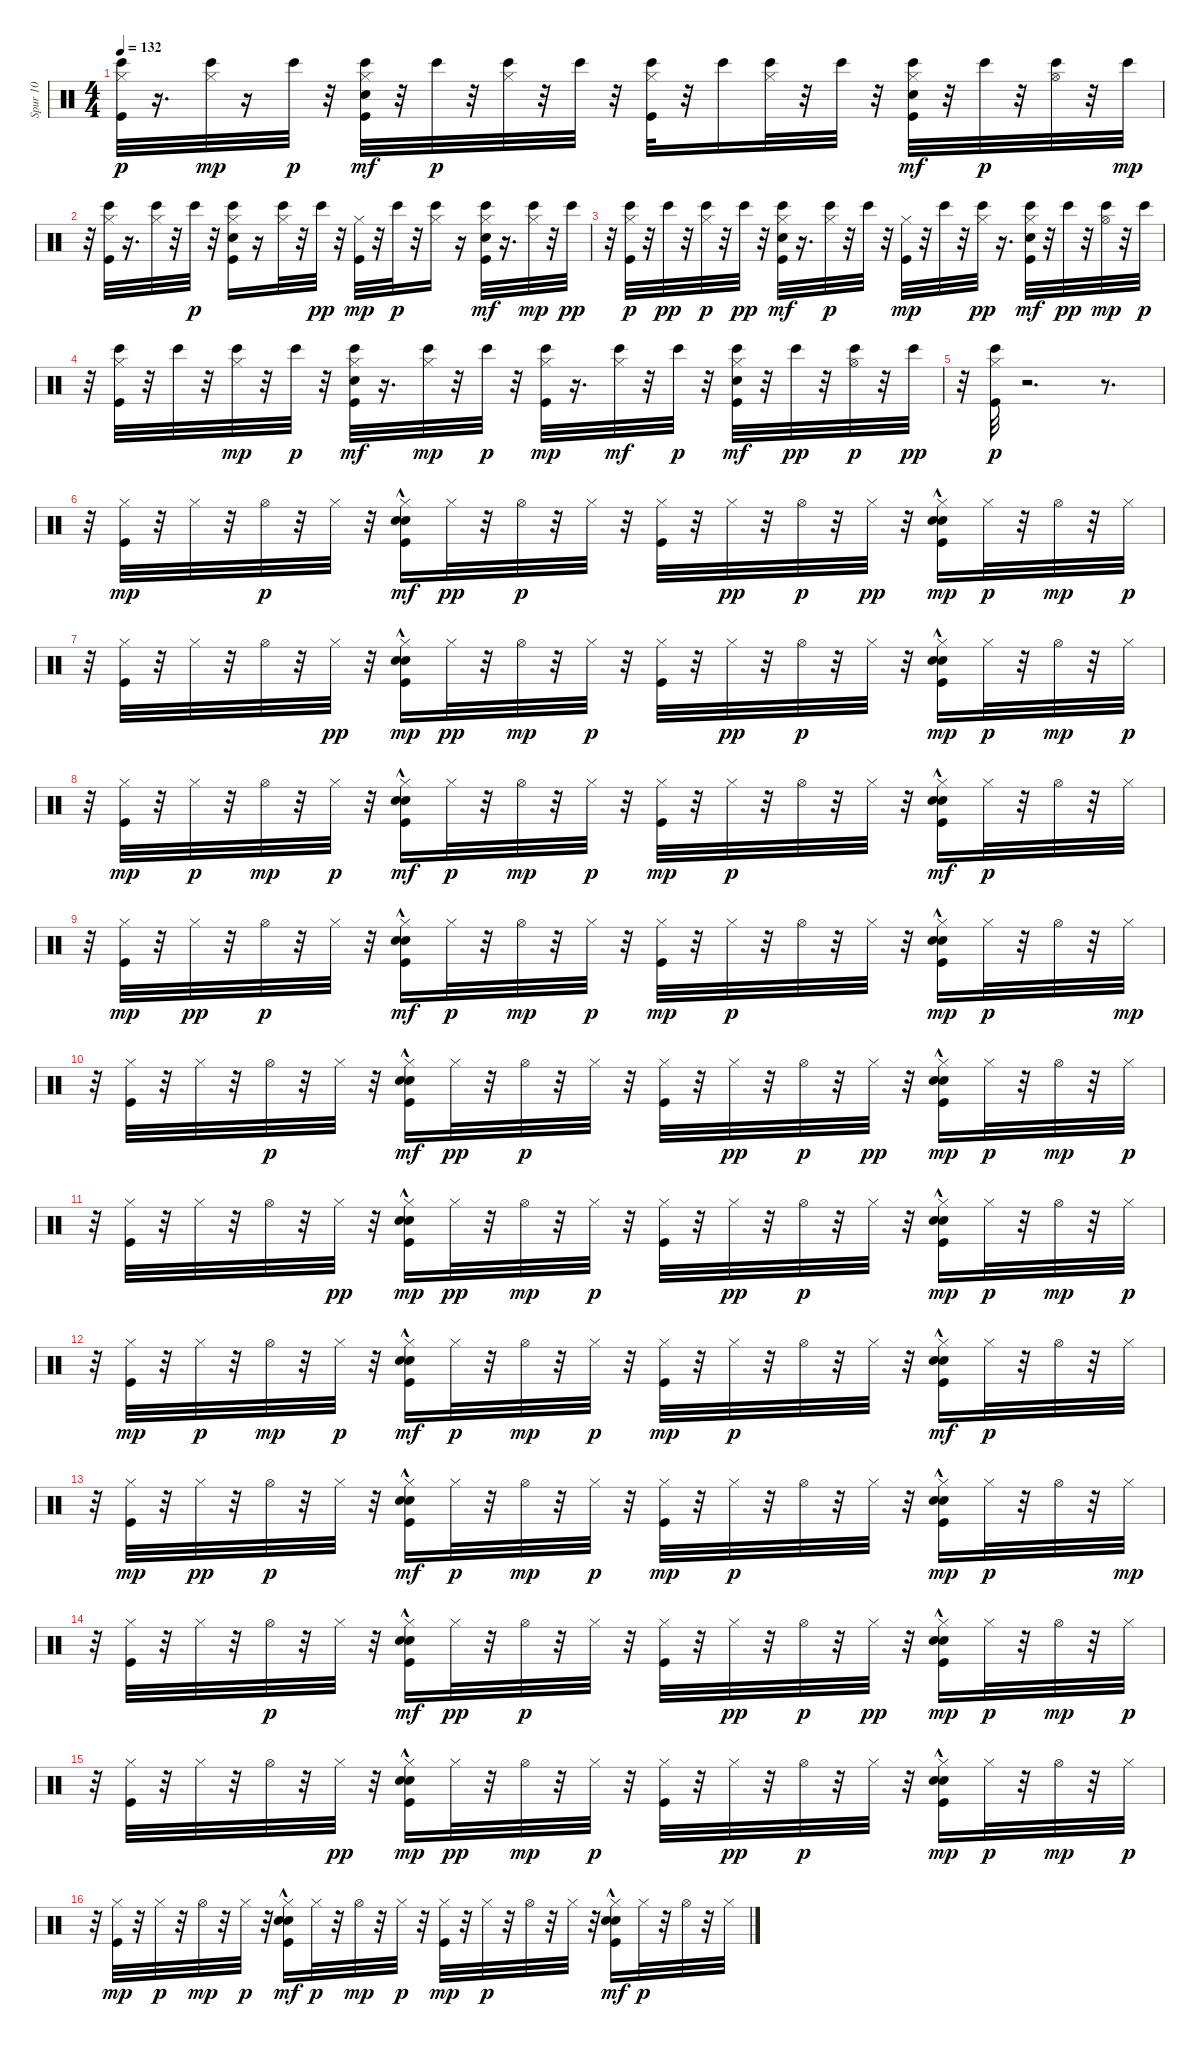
\track ("Spur 10" "Spur 10") {instrument percussion}
\staff {score}
\articulation defaults
\ts (4 4)
\tempo 132
\clef neutral
\ks c
("Hi-Hat (closed)" "Kick (hit)" "Bongo High (hit)").32{dy p} r.16{d} ("Bongo High (hit)" "Hi-Hat (closed)").32{dy mp} r.16 "Bongo High (hit)".32{dy p} r.32 ("Bongo High (hit)" "Hi-Hat (closed)" "Snare (hit) 2" "Kick (hit)").32{dy mf} r.32 "Bongo High (hit)".32{dy p} r.32 ("Hi-Hat (closed)" "Bongo High (hit)").32 r.32 "Bongo High (hit)".32 r.32 ("Hi-Hat (closed)" "Kick (hit)" "Bongo High (hit)").32 r.32 "Bongo High (hit)".16 ("Hi-Hat (closed)" "Bongo High (hit)").32 r.32 "Bongo High (hit)".32 r.32 ("Hi-Hat (closed)" "Snare (hit) 2" "Bongo High (hit)" "Kick (hit)").32{dy mf} r.32 "Bongo High (hit)".32{dy p} r.32 ("Hi-Hat (open)" "Bongo High (hit)").32 r.32 "Bongo High (hit)".32{dy mp} |
r.32 ("Bongo High (hit)" "Kick (hit)" "Hi-Hat (closed)").32 r.16{d} ("Bongo High (hit)" "Hi-Hat (closed)").32 r.32 "Bongo High (hit)".32{dy p} r.32 ("Kick (hit)" "Hi-Hat (closed)" "Snare (hit) 2" "Bongo High (hit)").16 r.16 ("Hi-Hat (closed)" "Bongo High (hit)").32 r.32 "Bongo High (hit)".32{dy pp} r.32 ("Hi-Hat (closed)" "Kick (hit)").32{dy mp} r.32 "Bongo High (hit)".32{dy p} r.32 ("Hi-Hat (closed)" "Bongo High (hit)").16 r.16 ("Bongo High (hit)" "Hi-Hat (closed)" "Snare (hit) 2" "Kick (hit)").32{dy mf} r.16{d} ("Bongo High (hit)" "Hi-Hat (closed)").32{dy mp} r.32 "Bongo High (hit)".32{dy pp} |
r.32 ("Hi-Hat (closed)" "Bongo High (hit)" "Kick (hit)").32{dy p} r.32 "Bongo High (hit)".32{dy pp} r.32 ("Hi-Hat (closed)" "Bongo High (hit)").32{dy p} r.32 "Bongo High (hit)".32{dy pp} r.32 ("Hi-Hat (closed)" "Snare (hit) 2" "Bongo High (hit)" "Kick (hit)").32{dy mf} r.16{d} ("Bongo High (hit)" "Hi-Hat (closed)").32{dy p} r.32 "Bongo High (hit)".32 r.32 ("Hi-Hat (closed)" "Kick (hit)").32{dy mp} r.32 "Bongo High (hit)".32 r.32 ("Hi-Hat (closed)" "Bongo High (hit)").32{dy pp} r.16{d} ("Bongo High (hit)" "Hi-Hat (closed)" "Snare (hit) 2" "Kick (hit)").32{dy mf} r.32 "Bongo High (hit)".32{dy pp} r.32 ("Hi-Hat (open)" "Bongo High (hit)").32{dy mp} r.32 "Bongo High (hit)".32{dy p} |
r.32 ("Hi-Hat (closed)" "Kick (hit)" "Bongo High (hit)").32 r.32 "Bongo High (hit)".32 r.32 ("Hi-Hat (closed)" "Bongo High (hit)").32{dy mp} r.32 "Bongo High (hit)".32{dy p} r.32 ("Hi-Hat (closed)" "Snare (hit) 2" "Bongo High (hit)" "Kick (hit)").32{dy mf} r.16{d} ("Bongo High (hit)" "Hi-Hat (closed)").32{dy mp} r.32 "Bongo High (hit)".32{dy p} r.32 ("Bongo High (hit)" "Hi-Hat (closed)" "Kick (hit)").32{dy mp} r.16{d} ("Bongo High (hit)" "Hi-Hat (closed)").32{dy mf} r.32 "Bongo High (hit)".32{dy p} r.32 ("Bongo High (hit)" "Hi-Hat (closed)" "Snare (hit) 2" "Kick (hit)").32{dy mf} r.32 "Bongo High (hit)".32{dy pp} r.32 ("Bongo High (hit)" "Hi-Hat (open)").32{dy p} r.32 "Bongo High (hit)".32{dy pp} |
r.32 ("Hi-Hat (closed)" "Kick (hit)" "Bongo High (hit)").32{dy p} r.2{d} r.8{d} |
r.32 ("Kick (hit)" "Hi-Hat (closed)").32{dy mp} r.32 "Hi-Hat (closed)".32 r.32 "Hi-Hat (open)".32{dy p} r.32 "Hi-Hat (closed)".32 r.32 ("Hi-Hat (closed)" "Snare (hit) 2" "Kick (hit)" "Hand Clap (hit)"{hac}).16{dy mf} "Hi-Hat (closed)".32{dy pp} r.32 "Hi-Hat (open)".32{dy p} r.32 "Hi-Hat (closed)".32 r.32 ("Hi-Hat (closed)" "Kick (hit)").32 r.32 "Hi-Hat (closed)".32{dy pp} r.32 "Hi-Hat (open)".32{dy p} r.32 "Hi-Hat (closed)".32{dy pp} r.32 ("Hi-Hat (closed)" "Kick (hit)" "Snare (hit) 2" "Hand Clap (hit)"{hac}).16{dy mp} "Hi-Hat (closed)".32{dy p} r.32 "Hi-Hat (open)".32{dy mp} r.32 "Hi-Hat (closed)".32{dy p} |
r.32 ("Hi-Hat (closed)" "Kick (hit)").32 r.32 "Hi-Hat (closed)".32 r.32 "Hi-Hat (open)".32 r.32 "Hi-Hat (closed)".32{dy pp} r.32 ("Hi-Hat (closed)" "Kick (hit)" "Snare (hit) 2" "Hand Clap (hit)"{hac}).16{dy mp} "Hi-Hat (closed)".32{dy pp} r.32 "Hi-Hat (open)".32{dy mp} r.32 "Hi-Hat (closed)".32{dy p} r.32 ("Hi-Hat (closed)" "Kick (hit)").32 r.32 "Hi-Hat (closed)".32{dy pp} r.32 "Hi-Hat (open)".32{dy p} r.32 "Hi-Hat (closed)".32 r.32 ("Hi-Hat (closed)" "Kick (hit)" "Snare (hit) 2" "Hand Clap (hit)"{hac}).16{dy mp} "Hi-Hat (closed)".32{dy p} r.32 "Hi-Hat (open)".32{dy mp} r.32 "Hi-Hat (closed)".32{dy p} |
r.32 ("Hi-Hat (closed)" "Kick (hit)").32{dy mp} r.32 "Hi-Hat (closed)".32{dy p} r.32 "Hi-Hat (open)".32{dy mp} r.32 "Hi-Hat (closed)".32{dy p} r.32 ("Hi-Hat (closed)" "Snare (hit) 2" "Kick (hit)" "Hand Clap (hit)"{hac}).16{dy mf} "Hi-Hat (closed)".32{dy p} r.32 "Hi-Hat (open)".32{dy mp} r.32 "Hi-Hat (closed)".32{dy p} r.32 ("Hi-Hat (closed)" "Kick (hit)").32{dy mp} r.32 "Hi-Hat (closed)".32{dy p} r.32 "Hi-Hat (open)".32 r.32 "Hi-Hat (closed)".32 r.32 ("Hi-Hat (closed)" "Snare (hit) 2" "Kick (hit)" "Hand Clap (hit)"{hac}).16{dy mf} "Hi-Hat (closed)".32{dy p} r.32 "Hi-Hat (open)".32 r.32 "Hi-Hat (closed)".32 |
r.32 ("Hi-Hat (closed)" "Kick (hit)").32{dy mp} r.32 "Hi-Hat (closed)".32{dy pp} r.32 "Hi-Hat (open)".32{dy p} r.32 "Hi-Hat (closed)".32 r.32 ("Hi-Hat (closed)" "Snare (hit) 2" "Kick (hit)" "Hand Clap (hit)"{hac}).16{dy mf} "Hi-Hat (closed)".32{dy p} r.32 "Hi-Hat (open)".32{dy mp} r.32 "Hi-Hat (closed)".32{dy p} r.32 ("Hi-Hat (closed)" "Kick (hit)").32{dy mp} r.32 "Hi-Hat (closed)".32{dy p} r.32 "Hi-Hat (open)".32 r.32 "Hi-Hat (closed)".32 r.32 ("Hi-Hat (closed)" "Kick (hit)" "Snare (hit) 2" "Hand Clap (hit)"{hac}).16{dy mp} "Hi-Hat (closed)".32{dy p} r.32 "Hi-Hat (open)".32 r.32 "Hi-Hat (closed)".32{dy mp} |
r.32 ("Kick (hit)" "Hi-Hat (closed)").32 r.32 "Hi-Hat (closed)".32 r.32 "Hi-Hat (open)".32{dy p} r.32 "Hi-Hat (closed)".32 r.32 ("Hi-Hat (closed)" "Snare (hit) 2" "Kick (hit)" "Hand Clap (hit)"{hac}).16{dy mf} "Hi-Hat (closed)".32{dy pp} r.32 "Hi-Hat (open)".32{dy p} r.32 "Hi-Hat (closed)".32 r.32 ("Hi-Hat (closed)" "Kick (hit)").32 r.32 "Hi-Hat (closed)".32{dy pp} r.32 "Hi-Hat (open)".32{dy p} r.32 "Hi-Hat (closed)".32{dy pp} r.32 ("Hi-Hat (closed)" "Kick (hit)" "Snare (hit) 2" "Hand Clap (hit)"{hac}).16{dy mp} "Hi-Hat (closed)".32{dy p} r.32 "Hi-Hat (open)".32{dy mp} r.32 "Hi-Hat (closed)".32{dy p} |
r.32 ("Hi-Hat (closed)" "Kick (hit)").32 r.32 "Hi-Hat (closed)".32 r.32 "Hi-Hat (open)".32 r.32 "Hi-Hat (closed)".32{dy pp} r.32 ("Hi-Hat (closed)" "Kick (hit)" "Snare (hit) 2" "Hand Clap (hit)"{hac}).16{dy mp} "Hi-Hat (closed)".32{dy pp} r.32 "Hi-Hat (open)".32{dy mp} r.32 "Hi-Hat (closed)".32{dy p} r.32 ("Hi-Hat (closed)" "Kick (hit)").32 r.32 "Hi-Hat (closed)".32{dy pp} r.32 "Hi-Hat (open)".32{dy p} r.32 "Hi-Hat (closed)".32 r.32 ("Hi-Hat (closed)" "Kick (hit)" "Snare (hit) 2" "Hand Clap (hit)"{hac}).16{dy mp} "Hi-Hat (closed)".32{dy p} r.32 "Hi-Hat (open)".32{dy mp} r.32 "Hi-Hat (closed)".32{dy p} |
r.32 ("Hi-Hat (closed)" "Kick (hit)").32{dy mp} r.32 "Hi-Hat (closed)".32{dy p} r.32 "Hi-Hat (open)".32{dy mp} r.32 "Hi-Hat (closed)".32{dy p} r.32 ("Hi-Hat (closed)" "Snare (hit) 2" "Kick (hit)" "Hand Clap (hit)"{hac}).16{dy mf} "Hi-Hat (closed)".32{dy p} r.32 "Hi-Hat (open)".32{dy mp} r.32 "Hi-Hat (closed)".32{dy p} r.32 ("Hi-Hat (closed)" "Kick (hit)").32{dy mp} r.32 "Hi-Hat (closed)".32{dy p} r.32 "Hi-Hat (open)".32 r.32 "Hi-Hat (closed)".32 r.32 ("Hi-Hat (closed)" "Snare (hit) 2" "Kick (hit)" "Hand Clap (hit)"{hac}).16{dy mf} "Hi-Hat (closed)".32{dy p} r.32 "Hi-Hat (open)".32 r.32 "Hi-Hat (closed)".32 |
r.32 ("Hi-Hat (closed)" "Kick (hit)").32{dy mp} r.32 "Hi-Hat (closed)".32{dy pp} r.32 "Hi-Hat (open)".32{dy p} r.32 "Hi-Hat (closed)".32 r.32 ("Hi-Hat (closed)" "Snare (hit) 2" "Kick (hit)" "Hand Clap (hit)"{hac}).16{dy mf} "Hi-Hat (closed)".32{dy p} r.32 "Hi-Hat (open)".32{dy mp} r.32 "Hi-Hat (closed)".32{dy p} r.32 ("Hi-Hat (closed)" "Kick (hit)").32{dy mp} r.32 "Hi-Hat (closed)".32{dy p} r.32 "Hi-Hat (open)".32 r.32 "Hi-Hat (closed)".32 r.32 ("Hi-Hat (closed)" "Kick (hit)" "Snare (hit) 2" "Hand Clap (hit)"{hac}).16{dy mp} "Hi-Hat (closed)".32{dy p} r.32 "Hi-Hat (open)".32 r.32 "Hi-Hat (closed)".32{dy mp} |
r.32 ("Kick (hit)" "Hi-Hat (closed)").32 r.32 "Hi-Hat (closed)".32 r.32 "Hi-Hat (open)".32{dy p} r.32 "Hi-Hat (closed)".32 r.32 ("Hi-Hat (closed)" "Snare (hit) 2" "Kick (hit)" "Hand Clap (hit)"{hac}).16{dy mf} "Hi-Hat (closed)".32{dy pp} r.32 "Hi-Hat (open)".32{dy p} r.32 "Hi-Hat (closed)".32 r.32 ("Hi-Hat (closed)" "Kick (hit)").32 r.32 "Hi-Hat (closed)".32{dy pp} r.32 "Hi-Hat (open)".32{dy p} r.32 "Hi-Hat (closed)".32{dy pp} r.32 ("Hi-Hat (closed)" "Kick (hit)" "Snare (hit) 2" "Hand Clap (hit)"{hac}).16{dy mp} "Hi-Hat (closed)".32{dy p} r.32 "Hi-Hat (open)".32{dy mp} r.32 "Hi-Hat (closed)".32{dy p} |
r.32 ("Hi-Hat (closed)" "Kick (hit)").32 r.32 "Hi-Hat (closed)".32 r.32 "Hi-Hat (open)".32 r.32 "Hi-Hat (closed)".32{dy pp} r.32 ("Hi-Hat (closed)" "Kick (hit)" "Snare (hit) 2" "Hand Clap (hit)"{hac}).16{dy mp} "Hi-Hat (closed)".32{dy pp} r.32 "Hi-Hat (open)".32{dy mp} r.32 "Hi-Hat (closed)".32{dy p} r.32 ("Hi-Hat (closed)" "Kick (hit)").32 r.32 "Hi-Hat (closed)".32{dy pp} r.32 "Hi-Hat (open)".32{dy p} r.32 "Hi-Hat (closed)".32 r.32 ("Hi-Hat (closed)" "Kick (hit)" "Snare (hit) 2" "Hand Clap (hit)"{hac}).16{dy mp} "Hi-Hat (closed)".32{dy p} r.32 "Hi-Hat (open)".32{dy mp} r.32 "Hi-Hat (closed)".32{dy p} |
r.32 ("Hi-Hat (closed)" "Kick (hit)").32{dy mp} r.32 "Hi-Hat (closed)".32{dy p} r.32 "Hi-Hat (open)".32{dy mp} r.32 "Hi-Hat (closed)".32{dy p} r.32 ("Hi-Hat (closed)" "Snare (hit) 2" "Kick (hit)" "Hand Clap (hit)"{hac}).16{dy mf} "Hi-Hat (closed)".32{dy p} r.32 "Hi-Hat (open)".32{dy mp} r.32 "Hi-Hat (closed)".32{dy p} r.32 ("Hi-Hat (closed)" "Kick (hit)").32{dy mp} r.32 "Hi-Hat (closed)".32{dy p} r.32 "Hi-Hat (open)".32 r.32 "Hi-Hat (closed)".32 r.32 ("Hi-Hat (closed)" "Snare (hit) 2" "Kick (hit)" "Hand Clap (hit)"{hac}).16{dy mf} "Hi-Hat (closed)".32{dy p} r.32 "Hi-Hat (open)".32 r.32 "Hi-Hat (closed)".32
